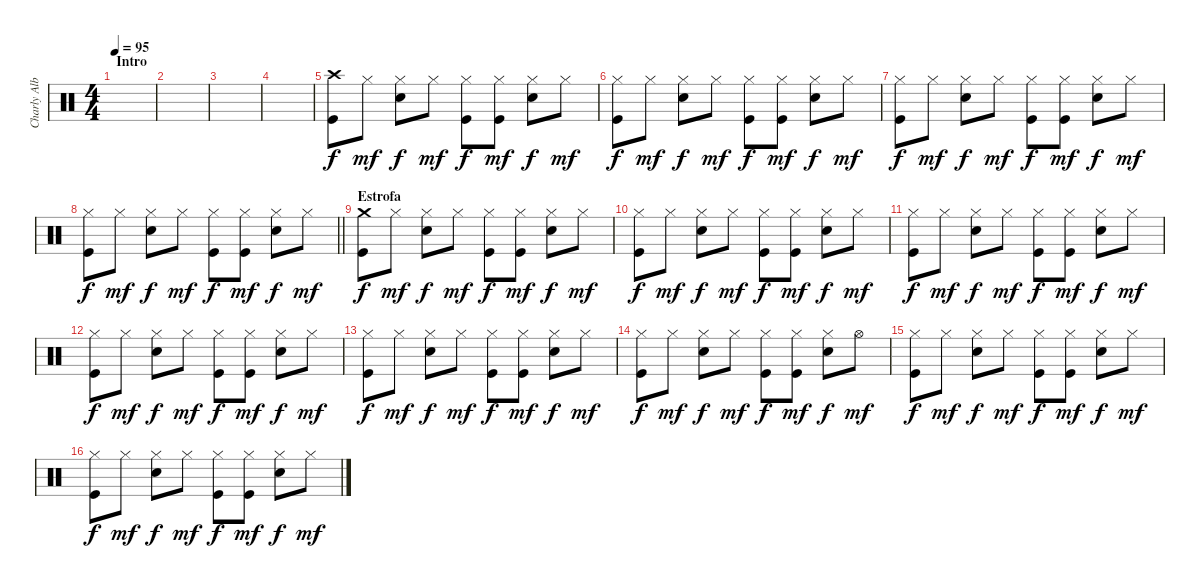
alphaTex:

\track ("Charly Alberti BATERIA" "Charly Alb") {instrument percussion}
\staff {score}
\articulation defaults
\ts (4 4)
\section ("" "Intro")
\tempo 95
\clef neutral
\ks c
|
|
|
|
("Kick (hit)" "Crash high (hit)").8 "Hi-Hat (closed)".8{dy mf} ("Electric Snare (hit)" "Hi-Hat (closed)").8{dy f} "Hi-Hat (closed)".8{dy mf} ("Kick (hit)" "Hi-Hat (closed)").8{dy f} ("Kick (hit)" "Hi-Hat (closed)").8{dy mf} ("Electric Snare (hit)" "Hi-Hat (closed)").8{dy f} "Hi-Hat (closed)".8{dy mf} |
("Kick (hit)" "Hi-Hat (closed)").8{dy f} "Hi-Hat (closed)".8{dy mf} ("Electric Snare (hit)" "Hi-Hat (closed)").8{dy f} "Hi-Hat (closed)".8{dy mf} ("Kick (hit)" "Hi-Hat (closed)").8{dy f} ("Kick (hit)" "Hi-Hat (closed)").8{dy mf} ("Electric Snare (hit)" "Hi-Hat (closed)").8{dy f} "Hi-Hat (closed)".8{dy mf} |
("Kick (hit)" "Hi-Hat (closed)").8{dy f} "Hi-Hat (closed)".8{dy mf} ("Electric Snare (hit)" "Hi-Hat (closed)").8{dy f} "Hi-Hat (closed)".8{dy mf} ("Kick (hit)" "Hi-Hat (closed)").8{dy f} ("Kick (hit)" "Hi-Hat (closed)").8{dy mf} ("Electric Snare (hit)" "Hi-Hat (closed)").8{dy f} "Hi-Hat (closed)".8{dy mf} |
\barLineRight lightlight
("Kick (hit)" "Hi-Hat (closed)").8{dy f} "Hi-Hat (closed)".8{dy mf} ("Electric Snare (hit)" "Hi-Hat (closed)").8{dy f} "Hi-Hat (closed)".8{dy mf} ("Kick (hit)" "Hi-Hat (closed)").8{dy f} ("Kick (hit)" "Hi-Hat (closed)").8{dy mf} ("Electric Snare (hit)" "Hi-Hat (closed)").8{dy f} "Hi-Hat (closed)".8{dy mf} |
\section ("" "Estrofa")
("Kick (hit)" "Crash medium (hit)").8{dy f} "Hi-Hat (closed)".8{dy mf} ("Electric Snare (hit)" "Hi-Hat (closed)").8{dy f} "Hi-Hat (closed)".8{dy mf} ("Kick (hit)" "Hi-Hat (closed)").8{dy f} ("Kick (hit)" "Hi-Hat (closed)").8{dy mf} ("Electric Snare (hit)" "Hi-Hat (closed)").8{dy f} "Hi-Hat (closed)".8{dy mf} |
("Kick (hit)" "Hi-Hat (closed)").8{dy f} "Hi-Hat (closed)".8{dy mf} ("Electric Snare (hit)" "Hi-Hat (closed)").8{dy f} "Hi-Hat (closed)".8{dy mf} ("Kick (hit)" "Hi-Hat (closed)").8{dy f} ("Kick (hit)" "Hi-Hat (closed)").8{dy mf} ("Electric Snare (hit)" "Hi-Hat (closed)").8{dy f} "Hi-Hat (closed)".8{dy mf} |
("Kick (hit)" "Hi-Hat (closed)").8{dy f} "Hi-Hat (closed)".8{dy mf} ("Electric Snare (hit)" "Hi-Hat (closed)").8{dy f} "Hi-Hat (closed)".8{dy mf} ("Kick (hit)" "Hi-Hat (closed)").8{dy f} ("Kick (hit)" "Hi-Hat (closed)").8{dy mf} ("Electric Snare (hit)" "Hi-Hat (closed)").8{dy f} "Hi-Hat (closed)".8{dy mf} |
("Kick (hit)" "Hi-Hat (closed)").8{dy f} "Hi-Hat (closed)".8{dy mf} ("Electric Snare (hit)" "Hi-Hat (closed)").8{dy f} "Hi-Hat (closed)".8{dy mf} ("Kick (hit)" "Hi-Hat (closed)").8{dy f} ("Kick (hit)" "Hi-Hat (closed)").8{dy mf} ("Electric Snare (hit)" "Hi-Hat (closed)").8{dy f} "Hi-Hat (closed)".8{dy mf} |
("Kick (hit)" "Hi-Hat (closed)").8{dy f} "Hi-Hat (closed)".8{dy mf} ("Electric Snare (hit)" "Hi-Hat (closed)").8{dy f} "Hi-Hat (closed)".8{dy mf} ("Kick (hit)" "Hi-Hat (closed)").8{dy f} ("Kick (hit)" "Hi-Hat (closed)").8{dy mf} ("Electric Snare (hit)" "Hi-Hat (closed)").8{dy f} "Hi-Hat (closed)".8{dy mf} |
("Kick (hit)" "Hi-Hat (closed)").8{dy f} "Hi-Hat (closed)".8{dy mf} ("Electric Snare (hit)" "Hi-Hat (closed)").8{dy f} "Hi-Hat (closed)".8{dy mf} ("Kick (hit)" "Hi-Hat (closed)").8{dy f} ("Kick (hit)" "Hi-Hat (closed)").8{dy mf} ("Electric Snare (hit)" "Hi-Hat (closed)").8{dy f} "Hi-Hat (open)".8{dy mf} |
("Kick (hit)" "Hi-Hat (closed)").8{dy f} "Hi-Hat (closed)".8{dy mf} ("Electric Snare (hit)" "Hi-Hat (closed)").8{dy f} "Hi-Hat (closed)".8{dy mf} ("Kick (hit)" "Hi-Hat (closed)").8{dy f} ("Kick (hit)" "Hi-Hat (closed)").8{dy mf} ("Electric Snare (hit)" "Hi-Hat (closed)").8{dy f} "Hi-Hat (closed)".8{dy mf} |
("Kick (hit)" "Hi-Hat (closed)").8{dy f} "Hi-Hat (closed)".8{dy mf} ("Electric Snare (hit)" "Hi-Hat (closed)").8{dy f} "Hi-Hat (closed)".8{dy mf} ("Kick (hit)" "Hi-Hat (closed)").8{dy f} ("Kick (hit)" "Hi-Hat (closed)").8{dy mf} ("Electric Snare (hit)" "Hi-Hat (closed)").8{dy f} "Hi-Hat (closed)".8{dy mf}
